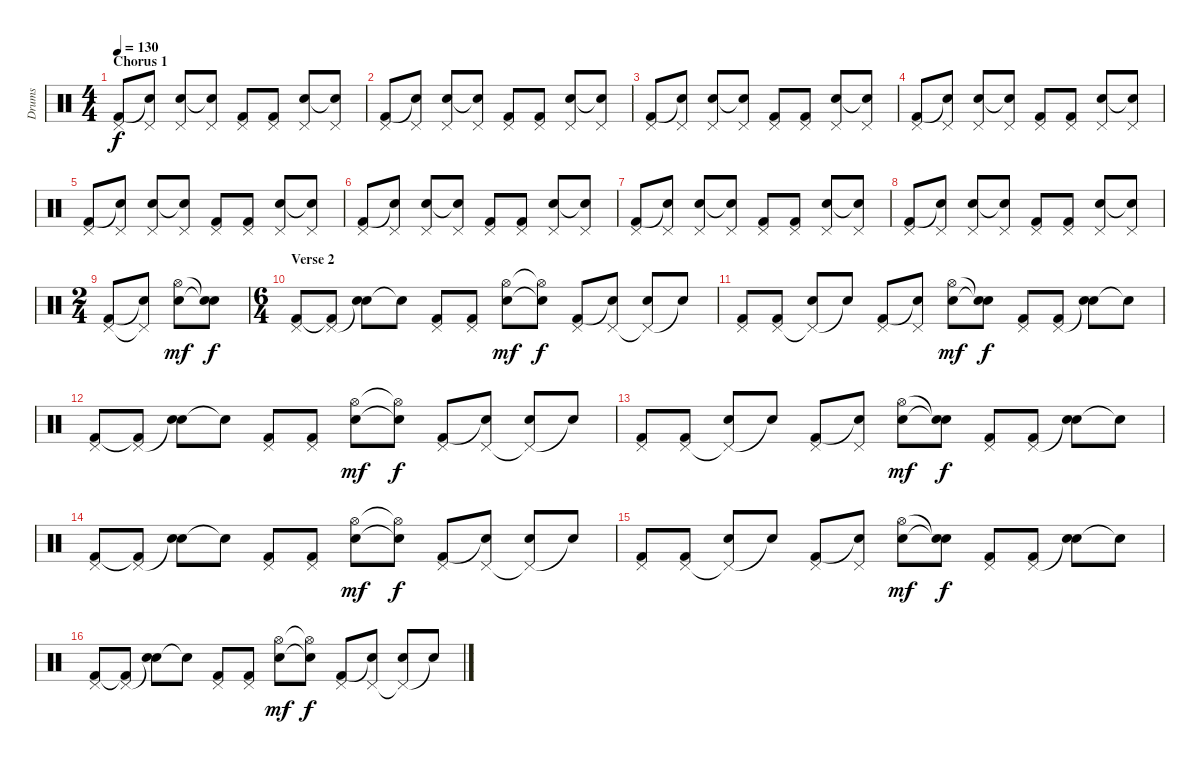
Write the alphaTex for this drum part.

\track ("Drums" "Drums") {instrument percussion}
\staff {score}
\articulation defaults
\ts (4 4)
\section ("" "Chorus 1")
\tempo 130
\clef neutral
\ks c
("Pedal Hi-Hat (hit)" "Kick (hit) 2").8{dy f} ("Pedal Hi-Hat (hit)" "Snare (hit)"{t}).8 ("Pedal Hi-Hat (hit)" "Electric Snare (hit)").8 ("Pedal Hi-Hat (hit)" "Snare (hit)"{t}).8 ("Pedal Hi-Hat (hit)" "Kick (hit) 2").8 ("Pedal Hi-Hat (hit)" "Kick (hit) 2").8 ("Pedal Hi-Hat (hit)" "Electric Snare (hit)").8 ("Pedal Hi-Hat (hit)" "Snare (hit)"{t}).8 |
("Pedal Hi-Hat (hit)" "Kick (hit) 2").8 ("Pedal Hi-Hat (hit)" "Snare (hit)"{t}).8 ("Pedal Hi-Hat (hit)" "Electric Snare (hit)").8 ("Pedal Hi-Hat (hit)" "Snare (hit)"{t}).8 ("Pedal Hi-Hat (hit)" "Kick (hit) 2").8 ("Pedal Hi-Hat (hit)" "Kick (hit) 2").8 ("Pedal Hi-Hat (hit)" "Electric Snare (hit)").8 ("Pedal Hi-Hat (hit)" "Snare (hit)"{t}).8 |
("Pedal Hi-Hat (hit)" "Kick (hit) 2").8 ("Pedal Hi-Hat (hit)" "Snare (hit)"{t}).8 ("Pedal Hi-Hat (hit)" "Electric Snare (hit)").8 ("Pedal Hi-Hat (hit)" "Snare (hit)"{t}).8 ("Pedal Hi-Hat (hit)" "Kick (hit) 2").8 ("Pedal Hi-Hat (hit)" "Kick (hit) 2").8 ("Pedal Hi-Hat (hit)" "Electric Snare (hit)").8 ("Pedal Hi-Hat (hit)" "Snare (hit)"{t}).8 |
("Pedal Hi-Hat (hit)" "Kick (hit) 2").8 ("Pedal Hi-Hat (hit)" "Snare (hit)"{t}).8 ("Pedal Hi-Hat (hit)" "Electric Snare (hit)").8 ("Pedal Hi-Hat (hit)" "Snare (hit)"{t}).8 ("Pedal Hi-Hat (hit)" "Kick (hit) 2").8 ("Pedal Hi-Hat (hit)" "Kick (hit) 2").8 ("Pedal Hi-Hat (hit)" "Electric Snare (hit)").8 ("Pedal Hi-Hat (hit)" "Snare (hit)"{t}).8 |
("Pedal Hi-Hat (hit)" "Kick (hit) 2").8 ("Pedal Hi-Hat (hit)" "Snare (hit)"{t}).8 ("Pedal Hi-Hat (hit)" "Electric Snare (hit)").8 ("Pedal Hi-Hat (hit)" "Snare (hit)"{t}).8 ("Pedal Hi-Hat (hit)" "Kick (hit) 2").8 ("Pedal Hi-Hat (hit)" "Kick (hit) 2").8 ("Pedal Hi-Hat (hit)" "Electric Snare (hit)").8 ("Pedal Hi-Hat (hit)" "Snare (hit)"{t}).8 |
("Pedal Hi-Hat (hit)" "Kick (hit) 2").8 ("Pedal Hi-Hat (hit)" "Snare (hit)"{t}).8 ("Pedal Hi-Hat (hit)" "Electric Snare (hit)").8 ("Pedal Hi-Hat (hit)" "Snare (hit)"{t}).8 ("Pedal Hi-Hat (hit)" "Kick (hit) 2").8 ("Pedal Hi-Hat (hit)" "Kick (hit) 2").8 ("Pedal Hi-Hat (hit)" "Electric Snare (hit)").8 ("Pedal Hi-Hat (hit)" "Snare (hit)"{t}).8 |
("Pedal Hi-Hat (hit)" "Kick (hit) 2").8 ("Pedal Hi-Hat (hit)" "Snare (hit)"{t}).8 ("Pedal Hi-Hat (hit)" "Electric Snare (hit)").8 ("Pedal Hi-Hat (hit)" "Snare (hit)"{t}).8 ("Pedal Hi-Hat (hit)" "Kick (hit) 2").8 ("Pedal Hi-Hat (hit)" "Kick (hit) 2").8 ("Pedal Hi-Hat (hit)" "Electric Snare (hit)").8 ("Pedal Hi-Hat (hit)" "Snare (hit)"{t}).8 |
("Pedal Hi-Hat (hit)" "Kick (hit) 2").8 ("Pedal Hi-Hat (hit)" "Snare (hit)"{t}).8 ("Pedal Hi-Hat (hit)" "Electric Snare (hit)").8 ("Pedal Hi-Hat (hit)" "Snare (hit)"{t}).8 ("Pedal Hi-Hat (hit)" "Kick (hit) 2").8 ("Pedal Hi-Hat (hit)" "Kick (hit) 2").8 ("Pedal Hi-Hat (hit)" "Electric Snare (hit)").8 ("Pedal Hi-Hat (hit)" "Snare (hit)"{t}).8 |
\ts (2 4)
("Pedal Hi-Hat (hit)" "Kick (hit) 2").8 ("Pedal Hi-Hat (hit)"{t} "Snare (hit)"{t}).8 ("Hi-Hat (open)" "Electric Snare (hit)").8{dy mf} ("Snare (hit)"{t} "Snare (hit)"{t}).8{dy f} |
\ts (6 4)
\section ("" "Verse 2")
("Pedal Hi-Hat (hit)" "Kick (hit) 2").8 ("Pedal Hi-Hat (hit)" "Kick (hit) 2"{t}).8 ("Snare (hit)"{t} "Electric Snare (hit)").8 "Snare (hit)"{t}.8 ("Pedal Hi-Hat (hit)" "Kick (hit) 2").8 ("Pedal Hi-Hat (hit)" "Kick (hit) 2").8 ("Hi-Hat (open)" "Electric Snare (hit)").8{dy mf} ("Hi-Hat (open)"{t} "Electric Snare (hit)"{t}).8{dy f} ("Pedal Hi-Hat (hit)" "Kick (hit) 2").8 ("Pedal Hi-Hat (hit)" "Snare (hit)"{t}).8 ("Pedal Hi-Hat (hit)"{t} "Electric Snare (hit)").8 "Snare (hit)"{t}.8 |
("Pedal Hi-Hat (hit)" "Kick (hit) 2").8 ("Pedal Hi-Hat (hit)" "Kick (hit) 2").8 ("Pedal Hi-Hat (hit)"{t} "Electric Snare (hit)").8 "Snare (hit)"{t}.8 ("Pedal Hi-Hat (hit)" "Kick (hit) 2").8 ("Pedal Hi-Hat (hit)" "Snare (hit)"{t}).8 ("Hi-Hat (open)" "Electric Snare (hit)").8{dy mf} ("Snare (hit)"{t} "Snare (hit)"{t}).8{dy f} ("Pedal Hi-Hat (hit)" "Kick (hit) 2").8 ("Pedal Hi-Hat (hit)" "Kick (hit) 2").8 ("Snare (hit)"{t} "Electric Snare (hit)").8 "Snare (hit)"{t}.8 |
("Pedal Hi-Hat (hit)" "Kick (hit) 2").8 ("Pedal Hi-Hat (hit)" "Kick (hit) 2"{t}).8 ("Snare (hit)"{t} "Electric Snare (hit)").8 "Snare (hit)"{t}.8 ("Pedal Hi-Hat (hit)" "Kick (hit) 2").8 ("Pedal Hi-Hat (hit)" "Kick (hit) 2").8 ("Hi-Hat (open)" "Electric Snare (hit)").8{dy mf} ("Hi-Hat (open)"{t} "Electric Snare (hit)"{t}).8{dy f} ("Pedal Hi-Hat (hit)" "Kick (hit) 2").8 ("Pedal Hi-Hat (hit)" "Snare (hit)"{t}).8 ("Pedal Hi-Hat (hit)"{t} "Electric Snare (hit)").8 "Snare (hit)"{t}.8 |
("Pedal Hi-Hat (hit)" "Kick (hit) 2").8 ("Pedal Hi-Hat (hit)" "Kick (hit) 2").8 ("Pedal Hi-Hat (hit)"{t} "Electric Snare (hit)").8 "Snare (hit)"{t}.8 ("Pedal Hi-Hat (hit)" "Kick (hit) 2").8 ("Pedal Hi-Hat (hit)" "Snare (hit)"{t}).8 ("Hi-Hat (open)" "Electric Snare (hit)").8{dy mf} ("Snare (hit)"{t} "Snare (hit)"{t}).8{dy f} ("Pedal Hi-Hat (hit)" "Kick (hit) 2").8 ("Pedal Hi-Hat (hit)" "Kick (hit) 2").8 ("Snare (hit)"{t} "Electric Snare (hit)").8 "Snare (hit)"{t}.8 |
("Pedal Hi-Hat (hit)" "Kick (hit) 2").8 ("Pedal Hi-Hat (hit)" "Kick (hit) 2"{t}).8 ("Snare (hit)"{t} "Electric Snare (hit)").8 "Snare (hit)"{t}.8 ("Pedal Hi-Hat (hit)" "Kick (hit) 2").8 ("Pedal Hi-Hat (hit)" "Kick (hit) 2").8 ("Hi-Hat (open)" "Electric Snare (hit)").8{dy mf} ("Hi-Hat (open)"{t} "Electric Snare (hit)"{t}).8{dy f} ("Pedal Hi-Hat (hit)" "Kick (hit) 2").8 ("Pedal Hi-Hat (hit)" "Snare (hit)"{t}).8 ("Pedal Hi-Hat (hit)"{t} "Electric Snare (hit)").8 "Snare (hit)"{t}.8 |
("Pedal Hi-Hat (hit)" "Kick (hit) 2").8 ("Pedal Hi-Hat (hit)" "Kick (hit) 2").8 ("Pedal Hi-Hat (hit)"{t} "Electric Snare (hit)").8 "Snare (hit)"{t}.8 ("Pedal Hi-Hat (hit)" "Kick (hit) 2").8 ("Pedal Hi-Hat (hit)" "Snare (hit)"{t}).8 ("Hi-Hat (open)" "Electric Snare (hit)").8{dy mf} ("Snare (hit)"{t} "Snare (hit)"{t}).8{dy f} ("Pedal Hi-Hat (hit)" "Kick (hit) 2").8 ("Pedal Hi-Hat (hit)" "Kick (hit) 2").8 ("Snare (hit)"{t} "Electric Snare (hit)").8 "Snare (hit)"{t}.8 |
("Pedal Hi-Hat (hit)" "Kick (hit) 2").8 ("Pedal Hi-Hat (hit)" "Kick (hit) 2"{t}).8 ("Snare (hit)"{t} "Electric Snare (hit)").8 "Snare (hit)"{t}.8 ("Pedal Hi-Hat (hit)" "Kick (hit) 2").8 ("Pedal Hi-Hat (hit)" "Kick (hit) 2").8 ("Hi-Hat (open)" "Electric Snare (hit)").8{dy mf} ("Hi-Hat (open)"{t} "Electric Snare (hit)"{t}).8{dy f} ("Pedal Hi-Hat (hit)" "Kick (hit) 2").8 ("Pedal Hi-Hat (hit)" "Snare (hit)"{t}).8 ("Pedal Hi-Hat (hit)"{t} "Electric Snare (hit)").8 "Snare (hit)"{t}.8
